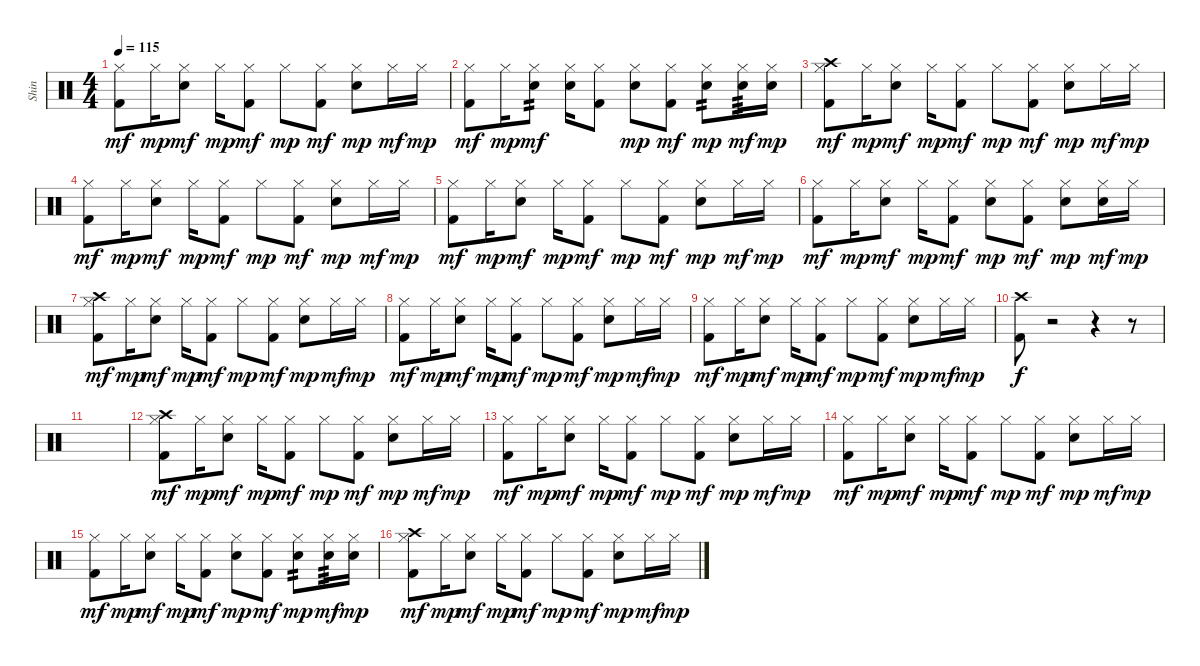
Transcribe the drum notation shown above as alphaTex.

\track ("Shin" "Shin") {instrument percussion}
\staff {score}
\articulation defaults
\ts (4 4)
\tempo 115
\clef neutral
\ks c
("Hi-Hat (closed)" "Kick (hit) 2").8{dy mf} "Hi-Hat (closed)".16{dy mp} ("Hi-Hat (closed)" "Snare (hit) 2").8{dy mf} "Hi-Hat (closed)".16{dy mp} ("Hi-Hat (closed)" "Kick (hit) 2").8{dy mf} "Hi-Hat (closed)".8{dy mp} ("Hi-Hat (closed)" "Kick (hit) 2").8{dy mf} ("Hi-Hat (closed)" "Snare (hit) 2").8{dy mp} "Hi-Hat (closed)".16{dy mf} "Hi-Hat (closed)".16{dy mp} |
("Hi-Hat (closed)" "Kick (hit) 2").8{dy mf} "Hi-Hat (closed)".16{dy mp} ("Hi-Hat (closed)" "Snare (hit) 2").8{tp 2 dy mf} ("Hi-Hat (closed)" "Snare (hit) 2").16 ("Hi-Hat (closed)" "Kick (hit) 2").8 ("Hi-Hat (closed)" "Snare (hit) 2").8{dy mp} ("Hi-Hat (closed)" "Kick (hit) 2").8{dy mf} ("Hi-Hat (closed)" "Snare (hit) 2").8{tp 2 dy mp} ("Hi-Hat (closed)" "Snare (hit) 2").16{tp 3 dy mf} ("Hi-Hat (closed)" "Snare (hit) 2").16{dy mp} |
("Hi-Hat (closed)" "Crash high (hit)" "Kick (hit) 2").8{dy mf} "Hi-Hat (closed)".16{dy mp} ("Hi-Hat (closed)" "Snare (hit) 2").8{dy mf} "Hi-Hat (closed)".16{dy mp} ("Hi-Hat (closed)" "Kick (hit) 2").8{dy mf} "Hi-Hat (closed)".8{dy mp} ("Hi-Hat (closed)" "Kick (hit) 2").8{dy mf} ("Hi-Hat (closed)" "Snare (hit) 2").8{dy mp} "Hi-Hat (closed)".16{dy mf} "Hi-Hat (closed)".16{dy mp} |
("Hi-Hat (closed)" "Kick (hit) 2").8{dy mf} "Hi-Hat (closed)".16{dy mp} ("Hi-Hat (closed)" "Snare (hit) 2").8{dy mf} "Hi-Hat (closed)".16{dy mp} ("Hi-Hat (closed)" "Kick (hit) 2").8{dy mf} "Hi-Hat (closed)".8{dy mp} ("Hi-Hat (closed)" "Kick (hit) 2").8{dy mf} ("Hi-Hat (closed)" "Snare (hit) 2").8{dy mp} "Hi-Hat (closed)".16{dy mf} "Hi-Hat (closed)".16{dy mp} |
("Hi-Hat (closed)" "Kick (hit) 2").8{dy mf} "Hi-Hat (closed)".16{dy mp} ("Hi-Hat (closed)" "Snare (hit) 2").8{dy mf} "Hi-Hat (closed)".16{dy mp} ("Hi-Hat (closed)" "Kick (hit) 2").8{dy mf} "Hi-Hat (closed)".8{dy mp} ("Hi-Hat (closed)" "Kick (hit) 2").8{dy mf} ("Hi-Hat (closed)" "Snare (hit) 2").8{dy mp} "Hi-Hat (closed)".16{dy mf} "Hi-Hat (closed)".16{dy mp} |
("Hi-Hat (closed)" "Kick (hit) 2").8{dy mf} "Hi-Hat (closed)".16{dy mp} ("Hi-Hat (closed)" "Snare (hit) 2").8{dy mf} "Hi-Hat (closed)".16{dy mp} ("Hi-Hat (closed)" "Kick (hit) 2").8{dy mf} ("Hi-Hat (closed)" "Snare (hit) 2").8{dy mp} ("Hi-Hat (closed)" "Kick (hit) 2").8{dy mf} ("Hi-Hat (closed)" "Snare (hit) 2").8{dy mp} ("Hi-Hat (closed)" "Snare (hit) 2").16{dy mf} "Hi-Hat (closed)".16{dy mp} |
("Hi-Hat (closed)" "Crash high (hit)" "Kick (hit) 2").8{dy mf} "Hi-Hat (closed)".16{dy mp} ("Hi-Hat (closed)" "Snare (hit) 2").8{dy mf} "Hi-Hat (closed)".16{dy mp} ("Hi-Hat (closed)" "Kick (hit) 2").8{dy mf} "Hi-Hat (closed)".8{dy mp} ("Hi-Hat (closed)" "Kick (hit) 2").8{dy mf} ("Hi-Hat (closed)" "Snare (hit) 2").8{dy mp} "Hi-Hat (closed)".16{dy mf} "Hi-Hat (closed)".16{dy mp} |
("Hi-Hat (closed)" "Kick (hit) 2").8{dy mf} "Hi-Hat (closed)".16{dy mp} ("Hi-Hat (closed)" "Snare (hit) 2").8{dy mf} "Hi-Hat (closed)".16{dy mp} ("Hi-Hat (closed)" "Kick (hit) 2").8{dy mf} "Hi-Hat (closed)".8{dy mp} ("Hi-Hat (closed)" "Kick (hit) 2").8{dy mf} ("Hi-Hat (closed)" "Snare (hit) 2").8{dy mp} "Hi-Hat (closed)".16{dy mf} "Hi-Hat (closed)".16{dy mp} |
("Hi-Hat (closed)" "Kick (hit) 2").8{dy mf} "Hi-Hat (closed)".16{dy mp} ("Hi-Hat (closed)" "Snare (hit) 2").8{dy mf} "Hi-Hat (closed)".16{dy mp} ("Hi-Hat (closed)" "Kick (hit) 2").8{dy mf} "Hi-Hat (closed)".8{dy mp} ("Hi-Hat (closed)" "Kick (hit) 2").8{dy mf} ("Hi-Hat (closed)" "Snare (hit) 2").8{dy mp} "Hi-Hat (closed)".16{dy mf} "Hi-Hat (closed)".16{dy mp} |
("Crash high (hit)" "Kick (hit) 2").8{dy f} r.2 r.4 r.8 |
|
("Hi-Hat (closed)" "Crash high (hit)" "Kick (hit) 2").8{dy mf} "Hi-Hat (closed)".16{dy mp} ("Hi-Hat (closed)" "Snare (hit) 2").8{dy mf} "Hi-Hat (closed)".16{dy mp} ("Hi-Hat (closed)" "Kick (hit) 2").8{dy mf} "Hi-Hat (closed)".8{dy mp} ("Hi-Hat (closed)" "Kick (hit) 2").8{dy mf} ("Hi-Hat (closed)" "Snare (hit) 2").8{dy mp} "Hi-Hat (closed)".16{dy mf} "Hi-Hat (closed)".16{dy mp} |
("Hi-Hat (closed)" "Kick (hit) 2").8{dy mf} "Hi-Hat (closed)".16{dy mp} ("Hi-Hat (closed)" "Snare (hit) 2").8{dy mf} "Hi-Hat (closed)".16{dy mp} ("Hi-Hat (closed)" "Kick (hit) 2").8{dy mf} "Hi-Hat (closed)".8{dy mp} ("Hi-Hat (closed)" "Kick (hit) 2").8{dy mf} ("Hi-Hat (closed)" "Snare (hit) 2").8{dy mp} "Hi-Hat (closed)".16{dy mf} "Hi-Hat (closed)".16{dy mp} |
("Hi-Hat (closed)" "Kick (hit) 2").8{dy mf} "Hi-Hat (closed)".16{dy mp} ("Hi-Hat (closed)" "Snare (hit) 2").8{dy mf} "Hi-Hat (closed)".16{dy mp} ("Hi-Hat (closed)" "Kick (hit) 2").8{dy mf} "Hi-Hat (closed)".8{dy mp} ("Hi-Hat (closed)" "Kick (hit) 2").8{dy mf} ("Hi-Hat (closed)" "Snare (hit) 2").8{dy mp} "Hi-Hat (closed)".16{dy mf} "Hi-Hat (closed)".16{dy mp} |
("Hi-Hat (closed)" "Kick (hit) 2").8{dy mf} "Hi-Hat (closed)".16{dy mp} ("Hi-Hat (closed)" "Snare (hit) 2").8{dy mf} "Hi-Hat (closed)".16{dy mp} ("Hi-Hat (closed)" "Kick (hit) 2").8{dy mf} ("Hi-Hat (closed)" "Snare (hit) 2").8{dy mp} ("Hi-Hat (closed)" "Kick (hit) 2").8{dy mf} ("Hi-Hat (closed)" "Snare (hit) 2").8{tp 2 dy mp} ("Hi-Hat (closed)" "Snare (hit) 2").16{tp 3 dy mf} ("Hi-Hat (closed)" "Snare (hit) 2").16{dy mp} |
("Hi-Hat (closed)" "Crash high (hit)" "Kick (hit) 2").8{dy mf} "Hi-Hat (closed)".16{dy mp} ("Hi-Hat (closed)" "Snare (hit) 2").8{dy mf} "Hi-Hat (closed)".16{dy mp} ("Hi-Hat (closed)" "Kick (hit) 2").8{dy mf} "Hi-Hat (closed)".8{dy mp} ("Hi-Hat (closed)" "Kick (hit) 2").8{dy mf} ("Hi-Hat (closed)" "Snare (hit) 2").8{dy mp} "Hi-Hat (closed)".16{dy mf} "Hi-Hat (closed)".16{dy mp}
